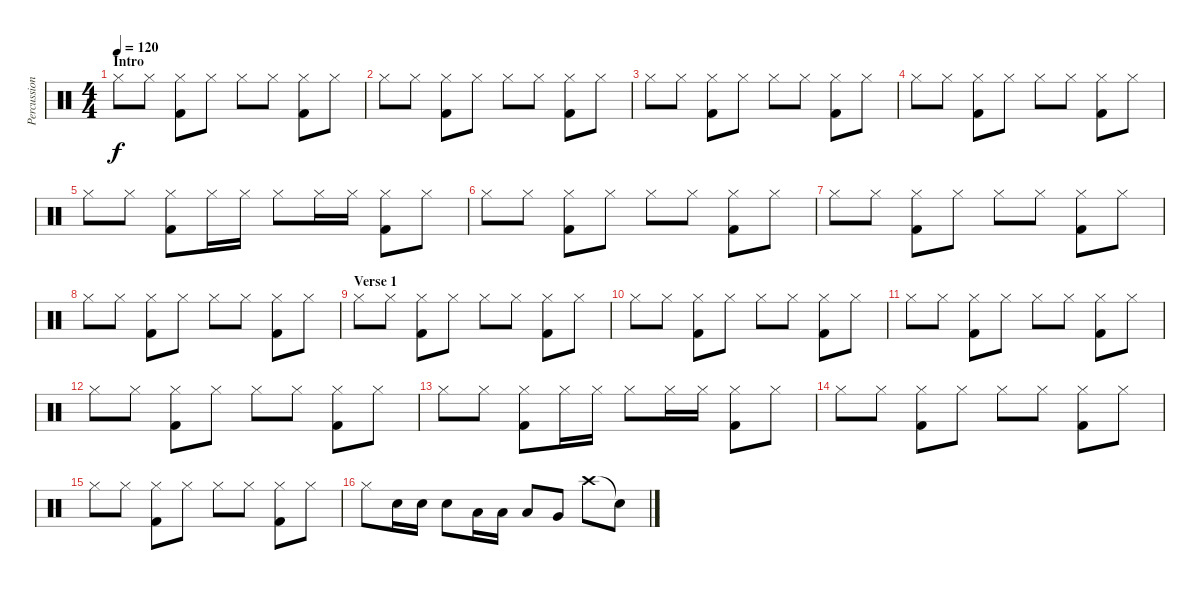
\track ("Percussion" "Percussion") {instrument percussion}
\staff {score}
\articulation defaults
\ts (4 4)
\section ("" "Intro")
\tempo 120
\tempo 155
\tempo 120
\clef neutral
\ks c "Hi-Hat (closed)".8{dy f} "Hi-Hat (closed)".8
("Hi-Hat (closed)" "Kick (hit) 2").8 "Hi-Hat (closed)".8 "Hi-Hat (closed)".8 "Hi-Hat (closed)".8 ("Hi-Hat (closed)" "Kick (hit) 2").8 "Hi-Hat (closed)".8 |
"Hi-Hat (closed)".8 "Hi-Hat (closed)".8 ("Hi-Hat (closed)" "Kick (hit) 2").8 "Hi-Hat (closed)".8 "Hi-Hat (closed)".8 "Hi-Hat (closed)".8 ("Hi-Hat (closed)" "Kick (hit) 2").8 "Hi-Hat (closed)".8 |
"Hi-Hat (closed)".8 "Hi-Hat (closed)".8 ("Hi-Hat (closed)" "Kick (hit) 2").8 "Hi-Hat (closed)".8 "Hi-Hat (closed)".8 "Hi-Hat (closed)".8 ("Hi-Hat (closed)" "Kick (hit) 2").8 "Hi-Hat (closed)".8 |
"Hi-Hat (closed)".8 "Hi-Hat (closed)".8 ("Hi-Hat (closed)" "Kick (hit) 2").8 "Hi-Hat (closed)".8 "Hi-Hat (closed)".8 "Hi-Hat (closed)".8 ("Hi-Hat (closed)" "Kick (hit) 2").8 "Hi-Hat (closed)".8 |
"Hi-Hat (closed)".8 "Hi-Hat (closed)".8 ("Hi-Hat (closed)" "Kick (hit) 2").8 "Hi-Hat (closed)".16 "Hi-Hat (closed)".16 "Hi-Hat (closed)".8 "Hi-Hat (closed)".16 "Hi-Hat (closed)".16 ("Hi-Hat (closed)" "Kick (hit) 2").8 "Hi-Hat (closed)".8 |
"Hi-Hat (closed)".8 "Hi-Hat (closed)".8 ("Hi-Hat (closed)" "Kick (hit) 2").8 "Hi-Hat (closed)".8 "Hi-Hat (closed)".8 "Hi-Hat (closed)".8 ("Hi-Hat (closed)" "Kick (hit) 2").8 "Hi-Hat (closed)".8 |
"Hi-Hat (closed)".8 "Hi-Hat (closed)".8 ("Hi-Hat (closed)" "Kick (hit) 2").8 "Hi-Hat (closed)".8 "Hi-Hat (closed)".8 "Hi-Hat (closed)".8 ("Hi-Hat (closed)" "Kick (hit) 2").8 "Hi-Hat (closed)".8 |
"Hi-Hat (closed)".8 "Hi-Hat (closed)".8 ("Hi-Hat (closed)" "Kick (hit) 2").8 "Hi-Hat (closed)".8 "Hi-Hat (closed)".8 "Hi-Hat (closed)".8 ("Hi-Hat (closed)" "Kick (hit) 2").8 "Hi-Hat (closed)".8 |
\section ("" "Verse 1")
"Hi-Hat (closed)".8 "Hi-Hat (closed)".8 ("Hi-Hat (closed)" "Kick (hit) 2").8 "Hi-Hat (closed)".8 "Hi-Hat (closed)".8 "Hi-Hat (closed)".8 ("Hi-Hat (closed)" "Kick (hit) 2").8 "Hi-Hat (closed)".8 |
"Hi-Hat (closed)".8 "Hi-Hat (closed)".8 ("Hi-Hat (closed)" "Kick (hit) 2").8 "Hi-Hat (closed)".8 "Hi-Hat (closed)".8 "Hi-Hat (closed)".8 ("Hi-Hat (closed)" "Kick (hit) 2").8 "Hi-Hat (closed)".8 |
"Hi-Hat (closed)".8 "Hi-Hat (closed)".8 ("Hi-Hat (closed)" "Kick (hit) 2").8 "Hi-Hat (closed)".8 "Hi-Hat (closed)".8 "Hi-Hat (closed)".8 ("Hi-Hat (closed)" "Kick (hit) 2").8 "Hi-Hat (closed)".8 |
"Hi-Hat (closed)".8 "Hi-Hat (closed)".8 ("Hi-Hat (closed)" "Kick (hit) 2").8 "Hi-Hat (closed)".8 "Hi-Hat (closed)".8 "Hi-Hat (closed)".8 ("Hi-Hat (closed)" "Kick (hit) 2").8 "Hi-Hat (closed)".8 |
"Hi-Hat (closed)".8 "Hi-Hat (closed)".8 ("Hi-Hat (closed)" "Kick (hit) 2").8 "Hi-Hat (closed)".16 "Hi-Hat (closed)".16 "Hi-Hat (closed)".8 "Hi-Hat (closed)".16 "Hi-Hat (closed)".16 ("Hi-Hat (closed)" "Kick (hit) 2").8 "Hi-Hat (closed)".8 |
"Hi-Hat (closed)".8 "Hi-Hat (closed)".8 ("Hi-Hat (closed)" "Kick (hit) 2").8 "Hi-Hat (closed)".8 "Hi-Hat (closed)".8 "Hi-Hat (closed)".8 ("Hi-Hat (closed)" "Kick (hit) 2").8 "Hi-Hat (closed)".8 |
"Hi-Hat (closed)".8 "Hi-Hat (closed)".8 ("Hi-Hat (closed)" "Kick (hit) 2").8 "Hi-Hat (closed)".8 "Hi-Hat (closed)".8 "Hi-Hat (closed)".8 ("Hi-Hat (closed)" "Kick (hit) 2").8 "Hi-Hat (closed)".8 |
"Hi-Hat (closed)".8 "Electric Snare (hit)".16 "Electric Snare (hit)".16 "Electric Snare (hit)".8 "Low Tom (hit)".16 "Low Tom (hit)".16 "Low Tom (hit)".8 "Very Low Tom (hit)".8 "Crash high (hit)".8 "Snare (hit)"{t}.8
